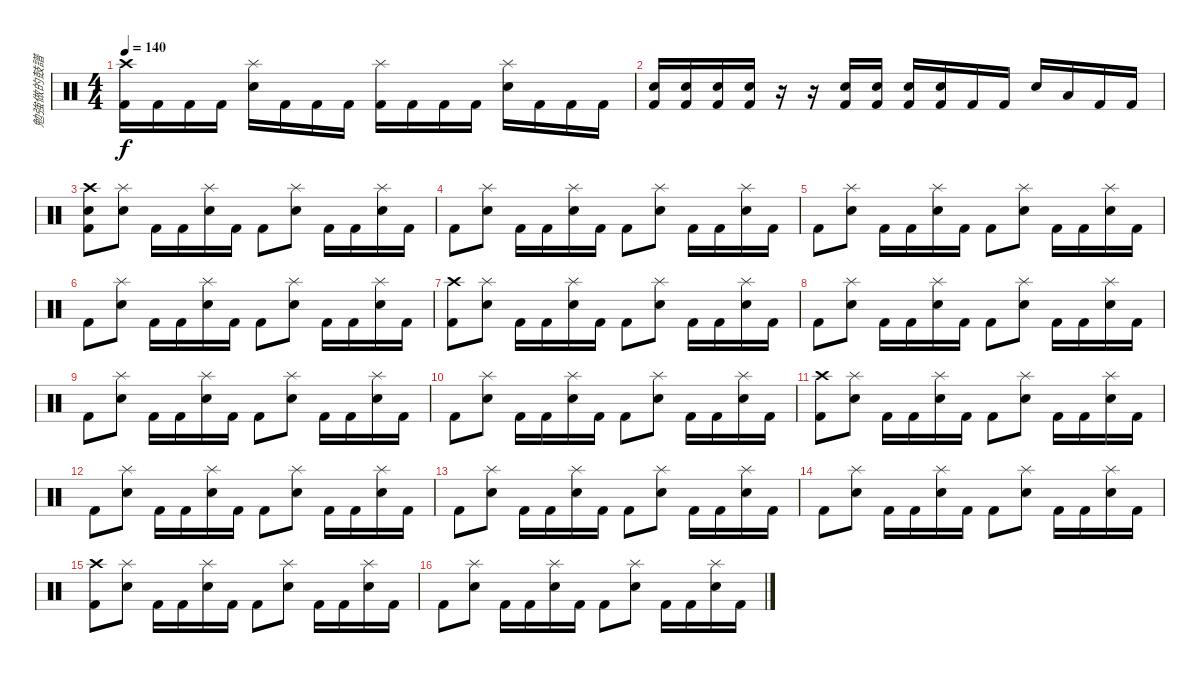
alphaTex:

\track ("勉強做的鼓譜" "勉強做的鼓譜") {instrument percussion}
\staff {score}
\articulation defaults
\ts (4 4)
\tempo 140
\clef neutral
\ks c
("Crash high (hit)" "Kick (hit) 2").16{dy f} "Kick (hit) 2".16 "Kick (hit) 2".16 "Kick (hit) 2".16 ("Splash (hit)" "Electric Snare (hit)").16 "Kick (hit) 2".16 "Kick (hit) 2".16 "Kick (hit) 2".16 ("Splash (hit)" "Kick (hit) 2").16 "Kick (hit) 2".16 "Kick (hit) 2".16 "Kick (hit) 2".16 ("Splash (hit)" "Electric Snare (hit)").16 "Kick (hit) 2".16 "Kick (hit) 2".16 "Kick (hit) 2".16 |
("Electric Snare (hit)" "Kick (hit) 2").16 ("Electric Snare (hit)" "Kick (hit) 2").16 ("Electric Snare (hit)" "Kick (hit) 2").16 ("Electric Snare (hit)" "Kick (hit) 2").16 r.16 r.16 ("Electric Snare (hit)" "Kick (hit) 2").16 ("Electric Snare (hit)" "Kick (hit) 2").16 ("Electric Snare (hit)" "Kick (hit) 2").16 ("Electric Snare (hit)" "Kick (hit) 2").16 "Kick (hit) 2".16 "Kick (hit) 2".16 "Electric Snare (hit)".16 "Low Floor Tom (hit)".16 "Kick (hit) 2".16 "Kick (hit) 2".16 |
("Crash high (hit)" "Electric Snare (hit)" "Kick (hit) 2").8 ("Splash (hit)" "Electric Snare (hit)").8 "Kick (hit) 2".16 "Kick (hit) 2".16 ("Splash (hit)" "Electric Snare (hit)").16 "Kick (hit) 2".16 "Kick (hit) 2".8 ("Splash (hit)" "Electric Snare (hit)").8 "Kick (hit) 2".16 "Kick (hit) 2".16 ("Splash (hit)" "Electric Snare (hit)").16 "Kick (hit) 2".16 |
"Kick (hit) 2".8 ("Splash (hit)" "Electric Snare (hit)").8 "Kick (hit) 2".16 "Kick (hit) 2".16 ("Splash (hit)" "Electric Snare (hit)").16 "Kick (hit) 2".16 "Kick (hit) 2".8 ("Splash (hit)" "Electric Snare (hit)").8 "Kick (hit) 2".16 "Kick (hit) 2".16 ("Splash (hit)" "Electric Snare (hit)").16 "Kick (hit) 2".16 |
"Kick (hit) 2".8 ("Splash (hit)" "Electric Snare (hit)").8 "Kick (hit) 2".16 "Kick (hit) 2".16 ("Splash (hit)" "Electric Snare (hit)").16 "Kick (hit) 2".16 "Kick (hit) 2".8 ("Splash (hit)" "Electric Snare (hit)").8 "Kick (hit) 2".16 "Kick (hit) 2".16 ("Splash (hit)" "Electric Snare (hit)").16 "Kick (hit) 2".16 |
"Kick (hit) 2".8 ("Splash (hit)" "Electric Snare (hit)").8 "Kick (hit) 2".16 "Kick (hit) 2".16 ("Splash (hit)" "Electric Snare (hit)").16 "Kick (hit) 2".16 "Kick (hit) 2".8 ("Splash (hit)" "Electric Snare (hit)").8 "Kick (hit) 2".16 "Kick (hit) 2".16 ("Splash (hit)" "Electric Snare (hit)").16 "Kick (hit) 2".16 |
("Crash high (hit)" "Kick (hit) 2").8 ("Splash (hit)" "Electric Snare (hit)").8 "Kick (hit) 2".16 "Kick (hit) 2".16 ("Splash (hit)" "Electric Snare (hit)").16 "Kick (hit) 2".16 "Kick (hit) 2".8 ("Splash (hit)" "Electric Snare (hit)").8 "Kick (hit) 2".16 "Kick (hit) 2".16 ("Splash (hit)" "Electric Snare (hit)").16 "Kick (hit) 2".16 |
"Kick (hit) 2".8 ("Splash (hit)" "Electric Snare (hit)").8 "Kick (hit) 2".16 "Kick (hit) 2".16 ("Splash (hit)" "Electric Snare (hit)").16 "Kick (hit) 2".16 "Kick (hit) 2".8 ("Splash (hit)" "Electric Snare (hit)").8 "Kick (hit) 2".16 "Kick (hit) 2".16 ("Splash (hit)" "Electric Snare (hit)").16 "Kick (hit) 2".16 |
"Kick (hit) 2".8 ("Splash (hit)" "Electric Snare (hit)").8 "Kick (hit) 2".16 "Kick (hit) 2".16 ("Splash (hit)" "Electric Snare (hit)").16 "Kick (hit) 2".16 "Kick (hit) 2".8 ("Splash (hit)" "Electric Snare (hit)").8 "Kick (hit) 2".16 "Kick (hit) 2".16 ("Splash (hit)" "Electric Snare (hit)").16 "Kick (hit) 2".16 |
"Kick (hit) 2".8 ("Splash (hit)" "Electric Snare (hit)").8 "Kick (hit) 2".16 "Kick (hit) 2".16 ("Splash (hit)" "Electric Snare (hit)").16 "Kick (hit) 2".16 "Kick (hit) 2".8 ("Splash (hit)" "Electric Snare (hit)").8 "Kick (hit) 2".16 "Kick (hit) 2".16 ("Splash (hit)" "Electric Snare (hit)").16 "Kick (hit) 2".16 |
("Crash high (hit)" "Kick (hit) 2").8 ("Splash (hit)" "Electric Snare (hit)").8 "Kick (hit) 2".16 "Kick (hit) 2".16 ("Splash (hit)" "Electric Snare (hit)").16 "Kick (hit) 2".16 "Kick (hit) 2".8 ("Splash (hit)" "Electric Snare (hit)").8 "Kick (hit) 2".16 "Kick (hit) 2".16 ("Splash (hit)" "Electric Snare (hit)").16 "Kick (hit) 2".16 |
"Kick (hit) 2".8 ("Splash (hit)" "Electric Snare (hit)").8 "Kick (hit) 2".16 "Kick (hit) 2".16 ("Splash (hit)" "Electric Snare (hit)").16 "Kick (hit) 2".16 "Kick (hit) 2".8 ("Splash (hit)" "Electric Snare (hit)").8 "Kick (hit) 2".16 "Kick (hit) 2".16 ("Splash (hit)" "Electric Snare (hit)").16 "Kick (hit) 2".16 |
"Kick (hit) 2".8 ("Splash (hit)" "Electric Snare (hit)").8 "Kick (hit) 2".16 "Kick (hit) 2".16 ("Splash (hit)" "Electric Snare (hit)").16 "Kick (hit) 2".16 "Kick (hit) 2".8 ("Splash (hit)" "Electric Snare (hit)").8 "Kick (hit) 2".16 "Kick (hit) 2".16 ("Splash (hit)" "Electric Snare (hit)").16 "Kick (hit) 2".16 |
"Kick (hit) 2".8 ("Splash (hit)" "Electric Snare (hit)").8 "Kick (hit) 2".16 "Kick (hit) 2".16 ("Splash (hit)" "Electric Snare (hit)").16 "Kick (hit) 2".16 "Kick (hit) 2".8 ("Splash (hit)" "Electric Snare (hit)").8 "Kick (hit) 2".16 "Kick (hit) 2".16 ("Splash (hit)" "Electric Snare (hit)").16 "Kick (hit) 2".16 |
("Crash high (hit)" "Kick (hit) 2").8 ("Splash (hit)" "Electric Snare (hit)").8 "Kick (hit) 2".16 "Kick (hit) 2".16 ("Splash (hit)" "Electric Snare (hit)").16 "Kick (hit) 2".16 "Kick (hit) 2".8 ("Splash (hit)" "Electric Snare (hit)").8 "Kick (hit) 2".16 "Kick (hit) 2".16 ("Splash (hit)" "Electric Snare (hit)").16 "Kick (hit) 2".16 |
"Kick (hit) 2".8 ("Splash (hit)" "Electric Snare (hit)").8 "Kick (hit) 2".16 "Kick (hit) 2".16 ("Splash (hit)" "Electric Snare (hit)").16 "Kick (hit) 2".16 "Kick (hit) 2".8 ("Splash (hit)" "Electric Snare (hit)").8 "Kick (hit) 2".16 "Kick (hit) 2".16 ("Splash (hit)" "Electric Snare (hit)").16 "Kick (hit) 2".16
